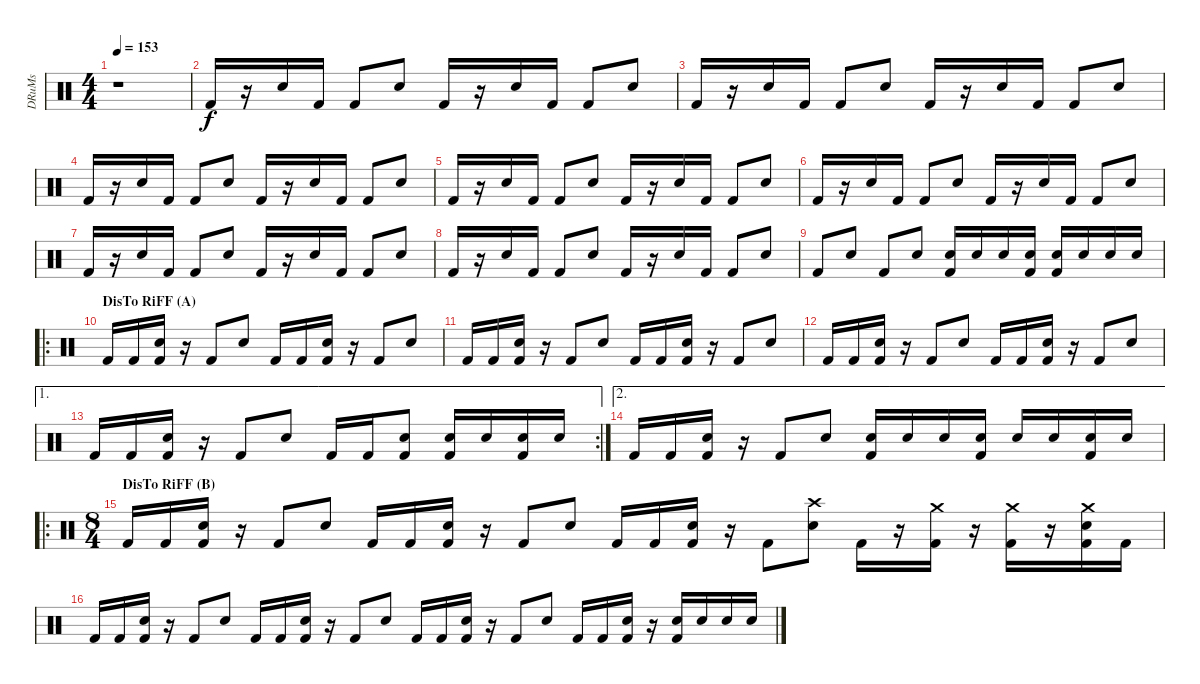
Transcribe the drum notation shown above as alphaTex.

\track ("DRuMs" "DRuMs") {instrument percussion}
\staff {score}
\articulation defaults
\ts (4 4)
\tempo 153
\clef neutral
\ks c
r.1{dy f} |
"Kick (hit) 2".16 r.16 "Electric Snare (hit)".16 "Kick (hit) 2".16 "Kick (hit) 2".8 "Electric Snare (hit)".8 "Kick (hit) 2".16 r.16 "Electric Snare (hit)".16 "Kick (hit) 2".16 "Kick (hit) 2".8 "Electric Snare (hit)".8 |
"Kick (hit) 2".16 r.16 "Electric Snare (hit)".16 "Kick (hit) 2".16 "Kick (hit) 2".8 "Electric Snare (hit)".8 "Kick (hit) 2".16 r.16 "Electric Snare (hit)".16 "Kick (hit) 2".16 "Kick (hit) 2".8 "Electric Snare (hit)".8 |
"Kick (hit) 2".16 r.16 "Electric Snare (hit)".16 "Kick (hit) 2".16 "Kick (hit) 2".8 "Electric Snare (hit)".8 "Kick (hit) 2".16 r.16 "Electric Snare (hit)".16 "Kick (hit) 2".16 "Kick (hit) 2".8 "Electric Snare (hit)".8 |
"Kick (hit) 2".16 r.16 "Electric Snare (hit)".16 "Kick (hit) 2".16 "Kick (hit) 2".8 "Electric Snare (hit)".8 "Kick (hit) 2".16 r.16 "Electric Snare (hit)".16 "Kick (hit) 2".16 "Kick (hit) 2".8 "Electric Snare (hit)".8 |
"Kick (hit) 2".16 r.16 "Electric Snare (hit)".16 "Kick (hit) 2".16 "Kick (hit) 2".8 "Electric Snare (hit)".8 "Kick (hit) 2".16 r.16 "Electric Snare (hit)".16 "Kick (hit) 2".16 "Kick (hit) 2".8 "Electric Snare (hit)".8 |
"Kick (hit) 2".16 r.16 "Electric Snare (hit)".16 "Kick (hit) 2".16 "Kick (hit) 2".8 "Electric Snare (hit)".8 "Kick (hit) 2".16 r.16 "Electric Snare (hit)".16 "Kick (hit) 2".16 "Kick (hit) 2".8 "Electric Snare (hit)".8 |
"Kick (hit) 2".16 r.16 "Electric Snare (hit)".16 "Kick (hit) 2".16 "Kick (hit) 2".8 "Electric Snare (hit)".8 "Kick (hit) 2".16 r.16 "Electric Snare (hit)".16 "Kick (hit) 2".16 "Kick (hit) 2".8 "Electric Snare (hit)".8 |
"Kick (hit) 2".8 "Electric Snare (hit)".8 "Kick (hit) 2".8 "Electric Snare (hit)".8 ("Metronome (bell)" "Kick (hit) 2").16 "Metronome (bell)".16 "Metronome (bell)".16 ("Metronome (bell)" "Kick (hit) 2").16 ("Metronome (bell)" "Kick (hit) 2").16 "Metronome (bell)".16 "Metronome (bell)".16 "Metronome (bell)".16 |
\ro
\section ("" "DisTo RiFF (A)")
"Kick (hit) 2".16 "Kick (hit) 2".16 ("Electric Snare (hit)" "Kick (hit) 2").16 r.16 "Kick (hit) 2".8 "Electric Snare (hit)".8 "Kick (hit) 2".16 "Kick (hit) 2".16 ("Electric Snare (hit)" "Kick (hit) 2").16 r.16 "Kick (hit) 2".8 "Electric Snare (hit)".8 |
"Kick (hit) 2".16 "Kick (hit) 2".16 ("Electric Snare (hit)" "Kick (hit) 2").16 r.16 "Kick (hit) 2".8 "Electric Snare (hit)".8 "Kick (hit) 2".16 "Kick (hit) 2".16 ("Electric Snare (hit)" "Kick (hit) 2").16 r.16 "Kick (hit) 2".8 "Electric Snare (hit)".8 |
"Kick (hit) 2".16 "Kick (hit) 2".16 ("Electric Snare (hit)" "Kick (hit) 2").16 r.16 "Kick (hit) 2".8 "Electric Snare (hit)".8 "Kick (hit) 2".16 "Kick (hit) 2".16 ("Electric Snare (hit)" "Kick (hit) 2").16 r.16 "Kick (hit) 2".8 "Electric Snare (hit)".8 |
\ae 1
\rc 2 "Kick (hit) 2".16 "Kick (hit) 2".16
("Electric Snare (hit)" "Kick (hit) 2").16 r.16 "Kick (hit) 2".8 "Electric Snare (hit)".8 "Kick (hit) 2".16 "Kick (hit) 2".16 ("Electric Snare (hit)" "Kick (hit) 2").8 ("Metronome (bell)" "Kick (hit) 2").16 "Metronome (bell)".16 ("Metronome (bell)" "Kick (hit) 2").16 "Metronome (bell)".16 |
\ae 2 "Kick (hit) 2".16 "Kick (hit) 2".16
("Electric Snare (hit)" "Kick (hit) 2").16 r.16 "Kick (hit) 2".8 "Electric Snare (hit)".8 ("Metronome (bell)" "Kick (hit) 2").16 "Metronome (bell)".16 "Metronome (bell)".16 ("Metronome (bell)" "Kick (hit) 2").16 "Metronome (bell)".16 "Metronome (bell)".16 ("Metronome (bell)" "Kick (hit) 2").16 "Metronome (bell)".16 |
\ro
\ts (8 4)
\section ("" "DisTo RiFF (B)")
"Kick (hit) 2".16 "Kick (hit) 2".16 ("Electric Snare (hit)" "Kick (hit) 2").16 r.16 "Kick (hit) 2".8 "Electric Snare (hit)".8 "Kick (hit) 2".16 "Kick (hit) 2".16 ("Electric Snare (hit)" "Kick (hit) 2").16 r.16 "Kick (hit) 2".8 "Electric Snare (hit)".8 "Kick (hit) 2".16 "Kick (hit) 2".16 ("Electric Snare (hit)" "Kick (hit) 2").16 r.16 "Kick (hit) 2".8 ("Crash high (hit)" "Electric Snare (hit)").8 "Kick (hit) 2".16 r.16 ("Crash medium (hit)" "Kick (hit) 2").16 r.16 ("Crash medium (hit)" "Kick (hit) 2").16 r.16 ("Crash medium (hit)" "Electric Snare (hit)" "Kick (hit) 2").16 "Kick (hit) 2".16 |
"Kick (hit) 2".16 "Kick (hit) 2".16 ("Electric Snare (hit)" "Kick (hit) 2").16 r.16 "Kick (hit) 2".8 "Electric Snare (hit)".8 "Kick (hit) 2".16 "Kick (hit) 2".16 ("Electric Snare (hit)" "Kick (hit) 2").16 r.16 "Kick (hit) 2".8 "Electric Snare (hit)".8 "Kick (hit) 2".16 "Kick (hit) 2".16 ("Electric Snare (hit)" "Kick (hit) 2").16 r.16 "Kick (hit) 2".8 "Electric Snare (hit)".8 "Kick (hit) 2".16 "Kick (hit) 2".16 ("Electric Snare (hit)" "Kick (hit) 2").16 r.16 ("Metronome (bell)" "Kick (hit) 2").16 "Metronome (bell)".16 "Metronome (bell)".16 "Metronome (bell)".16
